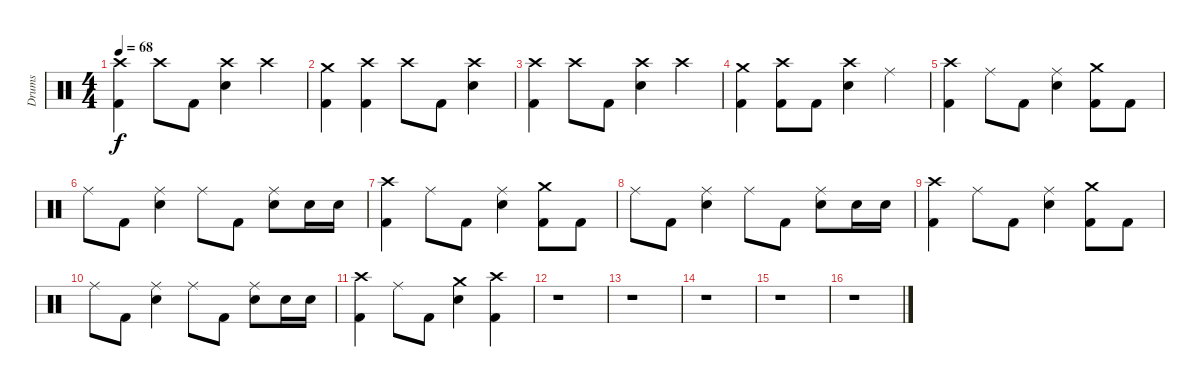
\track ("Drums" "Drums") {instrument percussion}
\staff {score}
\articulation defaults
\ts (4 4)
\tempo 68
\clef neutral
\ks c
("Crash high (hit)" "Kick (hit) 2").4{dy f} "Crash high (hit)".8 "Kick (hit) 2".8 ("Crash high (hit)" "Electric Snare (hit)").4 "Crash high (hit)".4 |
("Crash medium (hit)" "Kick (hit) 2").4 ("Crash high (hit)" "Kick (hit) 2").4 "Crash high (hit)".8 "Kick (hit) 2".8 ("Crash high (hit)" "Electric Snare (hit)").4 |
("Crash high (hit)" "Kick (hit) 2").4 "Crash high (hit)".8 "Kick (hit) 2".8 ("Crash high (hit)" "Electric Snare (hit)").4 "Crash high (hit)".4 |
("Crash medium (hit)" "Kick (hit) 2").4 ("Crash high (hit)" "Kick (hit) 2").8 "Kick (hit) 2".8 ("Crash high (hit)" "Electric Snare (hit)").4 "Ride (middle)".4 |
("Crash high (hit)" "Kick (hit) 2").4 "Ride (middle)".8 "Kick (hit) 2".8 ("Ride (middle)" "Electric Snare (hit)").4 ("Crash medium (hit)" "Kick (hit) 2").8 "Kick (hit) 2".8 |
"Ride (middle)".8 "Kick (hit) 2".8 ("Ride (middle)" "Electric Snare (hit)").4 "Ride (middle)".8 "Kick (hit) 2".8 ("Ride (middle)" "Electric Snare (hit)").8 "Electric Snare (hit)".16 "Electric Snare (hit)".16 |
("Crash high (hit)" "Kick (hit) 2").4 "Ride (middle)".8 "Kick (hit) 2".8 ("Ride (middle)" "Electric Snare (hit)").4 ("Crash medium (hit)" "Kick (hit) 2").8 "Kick (hit) 2".8 |
"Ride (middle)".8 "Kick (hit) 2".8 ("Ride (middle)" "Electric Snare (hit)").4 "Ride (middle)".8 "Kick (hit) 2".8 ("Ride (middle)" "Electric Snare (hit)").8 "Electric Snare (hit)".16 "Electric Snare (hit)".16 |
("Crash high (hit)" "Kick (hit) 2").4 "Ride (middle)".8 "Kick (hit) 2".8 ("Ride (middle)" "Electric Snare (hit)").4 ("Crash medium (hit)" "Kick (hit) 2").8 "Kick (hit) 2".8 |
"Ride (middle)".8 "Kick (hit) 2".8 ("Ride (middle)" "Electric Snare (hit)").4 "Ride (middle)".8 "Kick (hit) 2".8 ("Ride (middle)" "Electric Snare (hit)").8 "Electric Snare (hit)".16 "Electric Snare (hit)".16 |
("Crash high (hit)" "Kick (hit) 2").4 "Ride (middle)".8 "Kick (hit) 2".8 ("Crash medium (hit)" "Electric Snare (hit)").4 ("Crash high (hit)" "Kick (hit) 2").4 |
r.1 |
r.1 |
r.1 |
r.1 |
r.1
